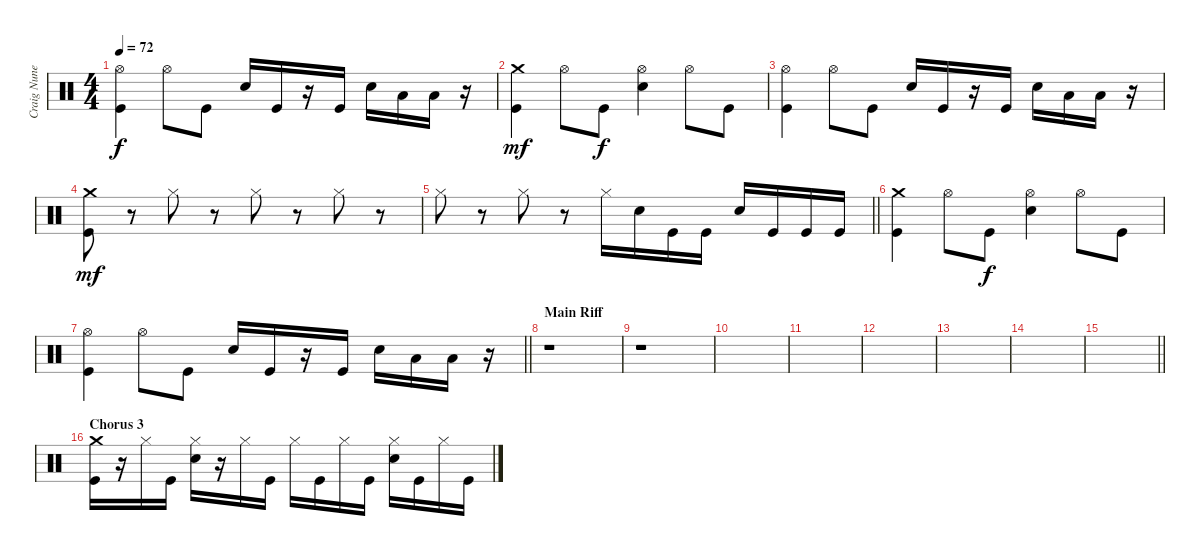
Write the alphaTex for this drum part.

\track ("Craig Nunenmacher" "Craig Nune") {instrument percussion}
\staff {score}
\articulation defaults
\ts (4 4)
\tempo 72
\clef neutral
\ks c
("Hi-Hat (open)" "Kick (hit)").4{dy f} "Hi-Hat (open)".8 "Kick (hit)".8 "Snare (hit) 2".16 "Kick (hit)".16 r.16 "Kick (hit)".16 "Snare (hit) 2".16 "Low Tom (hit)".16 "Low Floor Tom (hit)".16 r.16 |
("Crash medium (hit)" "Kick (hit)").4{dy mf} "Hi-Hat (open)".8 "Kick (hit)".8{dy f} ("Snare (hit) 2" "Hi-Hat (open)").4 "Hi-Hat (open)".8 "Kick (hit)".8 |
("Hi-Hat (open)" "Kick (hit)").4 "Hi-Hat (open)".8 "Kick (hit)".8 "Snare (hit) 2".16 "Kick (hit)".16 r.16 "Kick (hit)".16 "Snare (hit) 2".16 "Low Tom (hit)".16 "Low Floor Tom (hit)".16 r.16 |
("Crash medium (hit)" "Kick (hit)").8{dy mf} r.8 "Hi-Hat (closed)".8 r.8 "Hi-Hat (closed)".8 r.8 "Hi-Hat (closed)".8 r.8 |
\barLineRight lightlight "Hi-Hat (closed)".8
r.8 "Hi-Hat (closed)".8 r.8 "Hi-Hat (closed)".16 "Snare (hit) 2".16 "Kick (hit)".16 "Kick (hit)".16 "Snare (hit) 2".16 "Kick (hit)".16 "Kick (hit)".16 "Kick (hit)".16 |
("Crash medium (hit)" "Kick (hit)").4 "Hi-Hat (open)".8 "Kick (hit)".8{dy f} ("Snare (hit) 2" "Hi-Hat (open)").4 "Hi-Hat (open)".8 "Kick (hit)".8 |
\barLineRight lightlight
("Hi-Hat (open)" "Kick (hit)").4 "Hi-Hat (open)".8 "Kick (hit)".8 "Snare (hit) 2".16 "Kick (hit)".16 r.16 "Kick (hit)".16 "Snare (hit) 2".16 "Low Tom (hit)".16 "Low Floor Tom (hit)".16 r.16 |
\section ("" "Main Riff")
r.1 |
r.1 |
|
|
|
|
|
\barLineRight lightlight
|
\section ("" "Chorus 3")
("Crash medium (hit)" "Kick (hit)").16 r.16 "Hi-Hat (closed)".16 "Kick (hit)".16 ("Snare (hit) 2" "Hi-Hat (closed)").16 r.16 "Hi-Hat (closed)".16 "Kick (hit)".16 "Hi-Hat (closed)".16 "Kick (hit)".16 "Hi-Hat (closed)".16 "Kick (hit)".16 ("Snare (hit) 2" "Hi-Hat (closed)").16 "Kick (hit)".16 "Hi-Hat (closed)".16 "Kick (hit)".16
